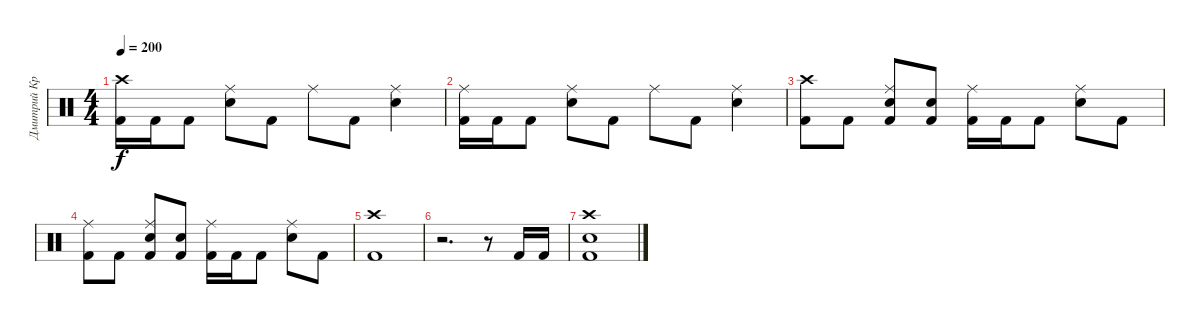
\track ("Дмитрий Кривенков" "Дмитрий Кр") {instrument percussion}
\staff {score}
\articulation defaults
\ts (4 4)
\tempo 200
\clef neutral
\ks c
("Crash high (hit)" "Kick (hit) 2").16{dy f} "Kick (hit) 2".16 "Kick (hit) 2".8 ("Ride (middle)" "Electric Snare (hit)").8 "Kick (hit) 2".8 "Ride (middle)".8 "Kick (hit) 2".8 ("Ride (middle)" "Electric Snare (hit)").4 |
("Ride (middle)" "Kick (hit) 2").16 "Kick (hit) 2".16 "Kick (hit) 2".8 ("Ride (middle)" "Electric Snare (hit)").8 "Kick (hit) 2".8 "Ride (middle)".8 "Kick (hit) 2".8 ("Ride (middle)" "Electric Snare (hit)").4 |
("Crash high (hit)" "Kick (hit) 2").8 "Kick (hit) 2".8 ("Ride (middle)" "Electric Snare (hit)" "Kick (hit) 2").8 ("Electric Snare (hit)" "Kick (hit) 2").8 ("Ride (middle)" "Kick (hit) 2").16 "Kick (hit) 2".16 "Kick (hit) 2".8 ("Ride (middle)" "Electric Snare (hit)").8 "Kick (hit) 2".8 |
("Ride (middle)" "Kick (hit) 2").8 "Kick (hit) 2".8 ("Ride (middle)" "Electric Snare (hit)" "Kick (hit) 2").8 ("Electric Snare (hit)" "Kick (hit) 2").8 ("Ride (middle)" "Kick (hit) 2").16 "Kick (hit) 2".16 "Kick (hit) 2".8 ("Ride (middle)" "Electric Snare (hit)").8 "Kick (hit) 2".8 |
("Crash high (hit)" "Kick (hit) 2").1 |
r.2{d} r.8 "Kick (hit) 2".16 "Kick (hit) 2".16 |
("Crash high (hit)" "Electric Snare (hit)" "Kick (hit) 2").1
